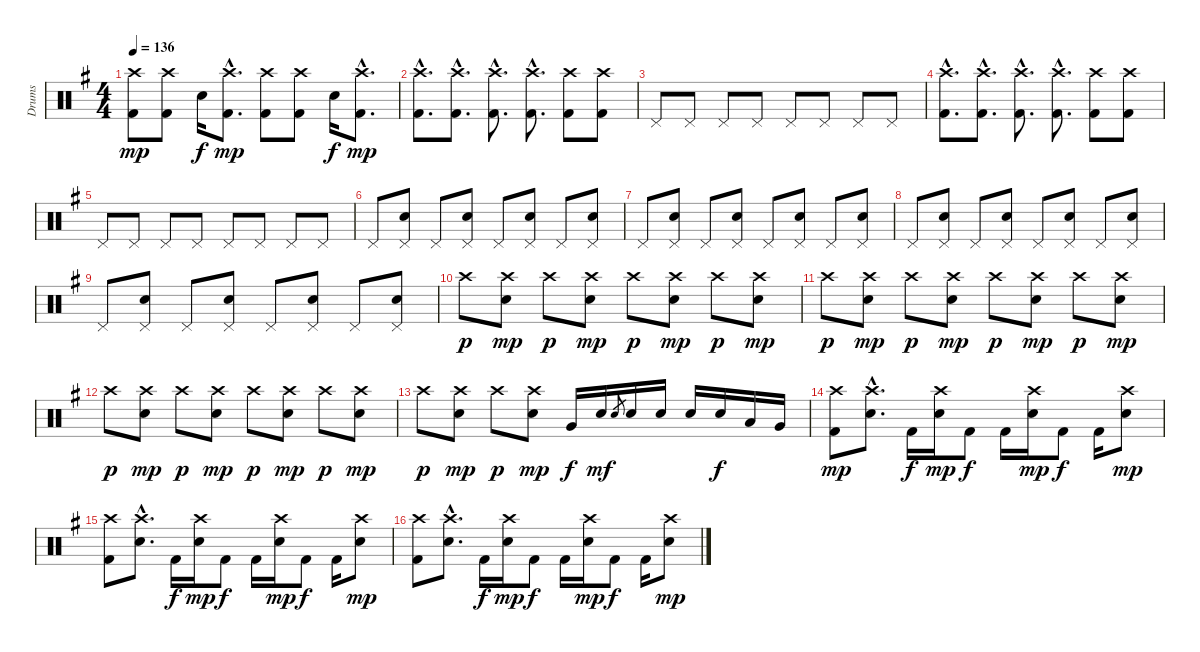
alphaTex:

\track ("Drums" "Drums") {instrument percussion}
\staff {score}
\articulation defaults
\ts (4 4)
\tempo 136
\clef neutral
\ks g
("Crash high (hit)" "Kick (hit) 2").8{dy mp} ("Crash high (hit)" "Kick (hit) 2").8 "Snare (hit) 2".16{dy f} ("Crash high (hit)"{hac} "Kick (hit) 2"{hac}).8{d dy mp} ("Crash high (hit)" "Kick (hit) 2").8 ("Crash high (hit)" "Kick (hit) 2").8 "Snare (hit) 2".16{dy f} ("Crash high (hit)"{hac} "Kick (hit) 2"{hac}).8{d dy mp} |
("Crash high (hit)"{hac} "Kick (hit) 2"{hac}).8{d} ("Crash high (hit)"{hac} "Kick (hit) 2"{hac}).8{d} ("Crash high (hit)"{hac} "Kick (hit) 2"{hac}).8{d} ("Crash high (hit)"{hac} "Kick (hit) 2"{hac}).8{d} ("Crash high (hit)" "Kick (hit) 2").8 ("Crash high (hit)" "Kick (hit) 2").8 |
"Pedal Hi-Hat (hit)".8 "Pedal Hi-Hat (hit)".8 "Pedal Hi-Hat (hit)".8 "Pedal Hi-Hat (hit)".8 "Pedal Hi-Hat (hit)".8 "Pedal Hi-Hat (hit)".8 "Pedal Hi-Hat (hit)".8 "Pedal Hi-Hat (hit)".8 |
("Crash high (hit)"{hac} "Kick (hit) 2"{hac}).8{d} ("Crash high (hit)"{hac} "Kick (hit) 2"{hac}).8{d} ("Crash high (hit)"{hac} "Kick (hit) 2"{hac}).8{d} ("Crash high (hit)"{hac} "Kick (hit) 2"{hac}).8{d} ("Crash high (hit)" "Kick (hit) 2").8 ("Crash high (hit)" "Kick (hit) 2").8 |
"Pedal Hi-Hat (hit)".8 "Pedal Hi-Hat (hit)".8 "Pedal Hi-Hat (hit)".8 "Pedal Hi-Hat (hit)".8 "Pedal Hi-Hat (hit)".8 "Pedal Hi-Hat (hit)".8 "Pedal Hi-Hat (hit)".8 "Pedal Hi-Hat (hit)".8 |
"Pedal Hi-Hat (hit)".8 ("Pedal Hi-Hat (hit)" "Snare (hit) 2").8 "Pedal Hi-Hat (hit)".8 ("Pedal Hi-Hat (hit)" "Snare (hit) 2").8 "Pedal Hi-Hat (hit)".8 ("Pedal Hi-Hat (hit)" "Snare (hit) 2").8 "Pedal Hi-Hat (hit)".8 ("Pedal Hi-Hat (hit)" "Snare (hit) 2").8 |
"Pedal Hi-Hat (hit)".8 ("Pedal Hi-Hat (hit)" "Snare (hit) 2").8 "Pedal Hi-Hat (hit)".8 ("Pedal Hi-Hat (hit)" "Snare (hit) 2").8 "Pedal Hi-Hat (hit)".8 ("Pedal Hi-Hat (hit)" "Snare (hit) 2").8 "Pedal Hi-Hat (hit)".8 ("Pedal Hi-Hat (hit)" "Snare (hit) 2").8 |
"Pedal Hi-Hat (hit)".8 ("Pedal Hi-Hat (hit)" "Snare (hit) 2").8 "Pedal Hi-Hat (hit)".8 ("Pedal Hi-Hat (hit)" "Snare (hit) 2").8 "Pedal Hi-Hat (hit)".8 ("Pedal Hi-Hat (hit)" "Snare (hit) 2").8 "Pedal Hi-Hat (hit)".8 ("Pedal Hi-Hat (hit)" "Snare (hit) 2").8 |
"Pedal Hi-Hat (hit)".8 ("Pedal Hi-Hat (hit)" "Snare (hit) 2").8 "Pedal Hi-Hat (hit)".8 ("Pedal Hi-Hat (hit)" "Snare (hit) 2").8 "Pedal Hi-Hat (hit)".8 ("Pedal Hi-Hat (hit)" "Snare (hit) 2").8 "Pedal Hi-Hat (hit)".8 ("Pedal Hi-Hat (hit)" "Snare (hit) 2").8 |
"Crash high (hit)".8{dy p} ("Crash high (hit)" "Snare (hit) 2").8{dy mp} "Crash high (hit)".8{dy p} ("Crash high (hit)" "Snare (hit) 2").8{dy mp} "Crash high (hit)".8{dy p} ("Crash high (hit)" "Snare (hit) 2").8{dy mp} "Crash high (hit)".8{dy p} ("Crash high (hit)" "Snare (hit) 2").8{dy mp} |
"Crash high (hit)".8{dy p} ("Crash high (hit)" "Snare (hit) 2").8{dy mp} "Crash high (hit)".8{dy p} ("Crash high (hit)" "Snare (hit) 2").8{dy mp} "Crash high (hit)".8{dy p} ("Crash high (hit)" "Snare (hit) 2").8{dy mp} "Crash high (hit)".8{dy p} ("Crash high (hit)" "Snare (hit) 2").8{dy mp} |
"Crash high (hit)".8{dy p} ("Crash high (hit)" "Snare (hit) 2").8{dy mp} "Crash high (hit)".8{dy p} ("Crash high (hit)" "Snare (hit) 2").8{dy mp} "Crash high (hit)".8{dy p} ("Crash high (hit)" "Snare (hit) 2").8{dy mp} "Crash high (hit)".8{dy p} ("Crash high (hit)" "Snare (hit) 2").8{dy mp} |
"Crash high (hit)".8{dy p} ("Crash high (hit)" "Snare (hit) 2").8{dy mp} "Crash high (hit)".8{dy p} ("Crash high (hit)" "Snare (hit) 2").8{dy mp} "Very Low Tom (hit)".16{dy f} "Snare (hit) 2".16{dy mf} "Snare (hit) 2".8{gr} "Snare (hit) 2".16 "Snare (hit) 2".16 "Snare (hit) 2".16 "Snare (hit) 2".16{dy f} "Low Tom (hit)".16 "Very Low Tom (hit)".16 |
("Crash high (hit)" "Kick (hit) 2").8{dy mp} ("Crash high (hit)"{hac} "Snare (hit) 2"{hac}).8{d} "Kick (hit) 2".16{dy f} ("Crash high (hit)" "Snare (hit) 2").16{dy mp} "Kick (hit) 2".8{dy f} "Kick (hit) 2".16 ("Crash high (hit)" "Snare (hit) 2").16{dy mp} "Kick (hit) 2".8{dy f} "Kick (hit) 2".16 ("Crash high (hit)" "Snare (hit) 2").8{dy mp} |
("Crash high (hit)" "Kick (hit) 2").8 ("Crash high (hit)"{hac} "Snare (hit) 2"{hac}).8{d} "Kick (hit) 2".16{dy f} ("Crash high (hit)" "Snare (hit) 2").16{dy mp} "Kick (hit) 2".8{dy f} "Kick (hit) 2".16 ("Crash high (hit)" "Snare (hit) 2").16{dy mp} "Kick (hit) 2".8{dy f} "Kick (hit) 2".16 ("Crash high (hit)" "Snare (hit) 2").8{dy mp} |
("Crash high (hit)" "Kick (hit) 2").8 ("Crash high (hit)"{hac} "Snare (hit) 2"{hac}).8{d} "Kick (hit) 2".16{dy f} ("Crash high (hit)" "Snare (hit) 2").16{dy mp} "Kick (hit) 2".8{dy f} "Kick (hit) 2".16 ("Crash high (hit)" "Snare (hit) 2").16{dy mp} "Kick (hit) 2".8{dy f} "Kick (hit) 2".16 ("Crash high (hit)" "Snare (hit) 2").8{dy mp}
